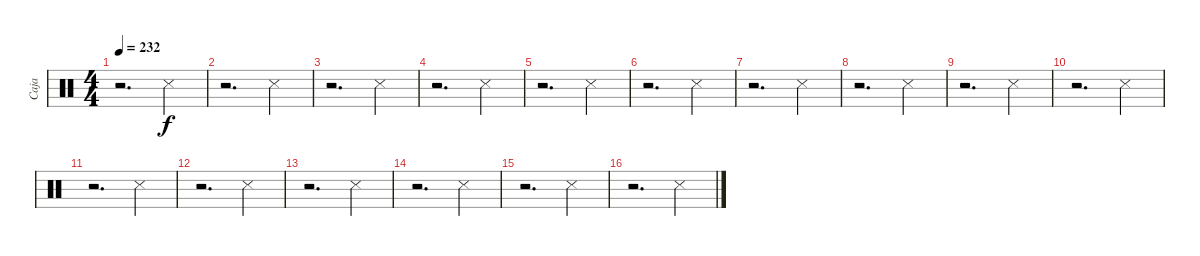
\track ("Caja" "Caja") {instrument percussion}
\staff {score}
\articulation defaults
\ts (4 4)
\tempo 232
\clef neutral
\ks c
r.2{d dy f} "Snare (side stick) 3".4 |
r.2{d} "Snare (side stick) 3".4 |
r.2{d} "Snare (side stick) 3".4 |
r.2{d} "Snare (side stick) 3".4 |
r.2{d} "Snare (side stick) 3".4 |
r.2{d} "Snare (side stick) 3".4 |
r.2{d} "Snare (side stick) 3".4 |
r.2{d} "Snare (side stick) 3".4 |
r.2{d} "Snare (side stick) 3".4 |
r.2{d} "Snare (side stick) 3".4 |
r.2{d} "Snare (side stick) 3".4 |
r.2{d} "Snare (side stick) 3".4 |
r.2{d} "Snare (side stick) 3".4 |
r.2{d} "Snare (side stick) 3".4 |
r.2{d} "Snare (side stick) 3".4 |
r.2{d} "Snare (side stick) 3".4
